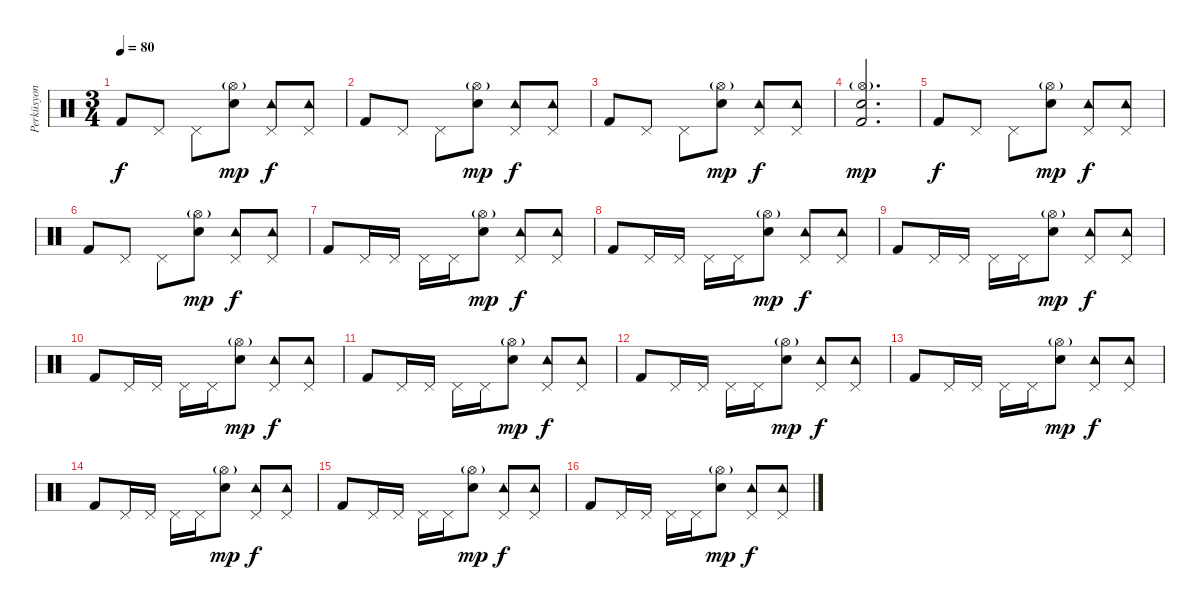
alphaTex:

\track ("Perküsyon" "Perküsyon") {instrument percussion}
\staff {score}
\articulation defaults
\ts (3 4)
\tempo 80
\clef neutral
\ks c "Kick (hit) 2".8{dy f} "Pedal Hi-Hat (hit)".8 "Pedal Hi-Hat (hit)".8
("Hi-Hat (open)"{g} "Snare (hit) 2").8{dy mp} ("Tambourine (hit)" "Pedal Hi-Hat (hit)").8{dy f} ("Tambourine (hit)" "Pedal Hi-Hat (hit)").8 |
"Kick (hit) 2".8 "Pedal Hi-Hat (hit)".8 "Pedal Hi-Hat (hit)".8 ("Hi-Hat (open)"{g} "Snare (hit) 2").8{dy mp} ("Tambourine (hit)" "Pedal Hi-Hat (hit)").8{dy f} ("Tambourine (hit)" "Pedal Hi-Hat (hit)").8 |
"Kick (hit) 2".8 "Pedal Hi-Hat (hit)".8 "Pedal Hi-Hat (hit)".8 ("Hi-Hat (open)"{g} "Snare (hit) 2").8{dy mp} ("Tambourine (hit)" "Pedal Hi-Hat (hit)").8{dy f} ("Tambourine (hit)" "Pedal Hi-Hat (hit)").8 |
("Hi-Hat (open)"{g} "Snare (hit) 2" "Kick (hit) 2").2{d dy mp} |
"Kick (hit) 2".8{dy f} "Pedal Hi-Hat (hit)".8 "Pedal Hi-Hat (hit)".8 ("Hi-Hat (open)"{g} "Snare (hit) 2").8{dy mp} ("Tambourine (hit)" "Pedal Hi-Hat (hit)").8{dy f} ("Tambourine (hit)" "Pedal Hi-Hat (hit)").8 |
"Kick (hit) 2".8 "Pedal Hi-Hat (hit)".8 "Pedal Hi-Hat (hit)".8 ("Hi-Hat (open)"{g} "Snare (hit) 2").8{dy mp} ("Tambourine (hit)" "Pedal Hi-Hat (hit)").8{dy f} ("Tambourine (hit)" "Pedal Hi-Hat (hit)").8 |
"Kick (hit) 2".8 "Pedal Hi-Hat (hit)".16 "Pedal Hi-Hat (hit)".16 "Pedal Hi-Hat (hit)".16 "Pedal Hi-Hat (hit)".16 ("Hi-Hat (open)"{g} "Snare (hit) 2").8{dy mp} ("Tambourine (hit)" "Pedal Hi-Hat (hit)").8{dy f} ("Tambourine (hit)" "Pedal Hi-Hat (hit)").8 |
"Kick (hit) 2".8 "Pedal Hi-Hat (hit)".16 "Pedal Hi-Hat (hit)".16 "Pedal Hi-Hat (hit)".16 "Pedal Hi-Hat (hit)".16 ("Hi-Hat (open)"{g} "Snare (hit) 2").8{dy mp} ("Tambourine (hit)" "Pedal Hi-Hat (hit)").8{dy f} ("Tambourine (hit)" "Pedal Hi-Hat (hit)").8 |
"Kick (hit) 2".8 "Pedal Hi-Hat (hit)".16 "Pedal Hi-Hat (hit)".16 "Pedal Hi-Hat (hit)".16 "Pedal Hi-Hat (hit)".16 ("Hi-Hat (open)"{g} "Snare (hit) 2").8{dy mp} ("Tambourine (hit)" "Pedal Hi-Hat (hit)").8{dy f} ("Tambourine (hit)" "Pedal Hi-Hat (hit)").8 |
"Kick (hit) 2".8 "Pedal Hi-Hat (hit)".16 "Pedal Hi-Hat (hit)".16 "Pedal Hi-Hat (hit)".16 "Pedal Hi-Hat (hit)".16 ("Hi-Hat (open)"{g} "Snare (hit) 2").8{dy mp} ("Tambourine (hit)" "Pedal Hi-Hat (hit)").8{dy f} ("Tambourine (hit)" "Pedal Hi-Hat (hit)").8 |
"Kick (hit) 2".8 "Pedal Hi-Hat (hit)".16 "Pedal Hi-Hat (hit)".16 "Pedal Hi-Hat (hit)".16 "Pedal Hi-Hat (hit)".16 ("Hi-Hat (open)"{g} "Snare (hit) 2").8{dy mp} ("Tambourine (hit)" "Pedal Hi-Hat (hit)").8{dy f} ("Tambourine (hit)" "Pedal Hi-Hat (hit)").8 |
"Kick (hit) 2".8 "Pedal Hi-Hat (hit)".16 "Pedal Hi-Hat (hit)".16 "Pedal Hi-Hat (hit)".16 "Pedal Hi-Hat (hit)".16 ("Hi-Hat (open)"{g} "Snare (hit) 2").8{dy mp} ("Tambourine (hit)" "Pedal Hi-Hat (hit)").8{dy f} ("Tambourine (hit)" "Pedal Hi-Hat (hit)").8 |
"Kick (hit) 2".8 "Pedal Hi-Hat (hit)".16 "Pedal Hi-Hat (hit)".16 "Pedal Hi-Hat (hit)".16 "Pedal Hi-Hat (hit)".16 ("Hi-Hat (open)"{g} "Snare (hit) 2").8{dy mp} ("Tambourine (hit)" "Pedal Hi-Hat (hit)").8{dy f} ("Tambourine (hit)" "Pedal Hi-Hat (hit)").8 |
"Kick (hit) 2".8 "Pedal Hi-Hat (hit)".16 "Pedal Hi-Hat (hit)".16 "Pedal Hi-Hat (hit)".16 "Pedal Hi-Hat (hit)".16 ("Hi-Hat (open)"{g} "Snare (hit) 2").8{dy mp} ("Tambourine (hit)" "Pedal Hi-Hat (hit)").8{dy f} ("Tambourine (hit)" "Pedal Hi-Hat (hit)").8 |
"Kick (hit) 2".8 "Pedal Hi-Hat (hit)".16 "Pedal Hi-Hat (hit)".16 "Pedal Hi-Hat (hit)".16 "Pedal Hi-Hat (hit)".16 ("Hi-Hat (open)"{g} "Snare (hit) 2").8{dy mp} ("Tambourine (hit)" "Pedal Hi-Hat (hit)").8{dy f} ("Tambourine (hit)" "Pedal Hi-Hat (hit)").8 |
"Kick (hit) 2".8 "Pedal Hi-Hat (hit)".16 "Pedal Hi-Hat (hit)".16 "Pedal Hi-Hat (hit)".16 "Pedal Hi-Hat (hit)".16 ("Hi-Hat (open)"{g} "Snare (hit) 2").8{dy mp} ("Tambourine (hit)" "Pedal Hi-Hat (hit)").8{dy f} ("Tambourine (hit)" "Pedal Hi-Hat (hit)").8
